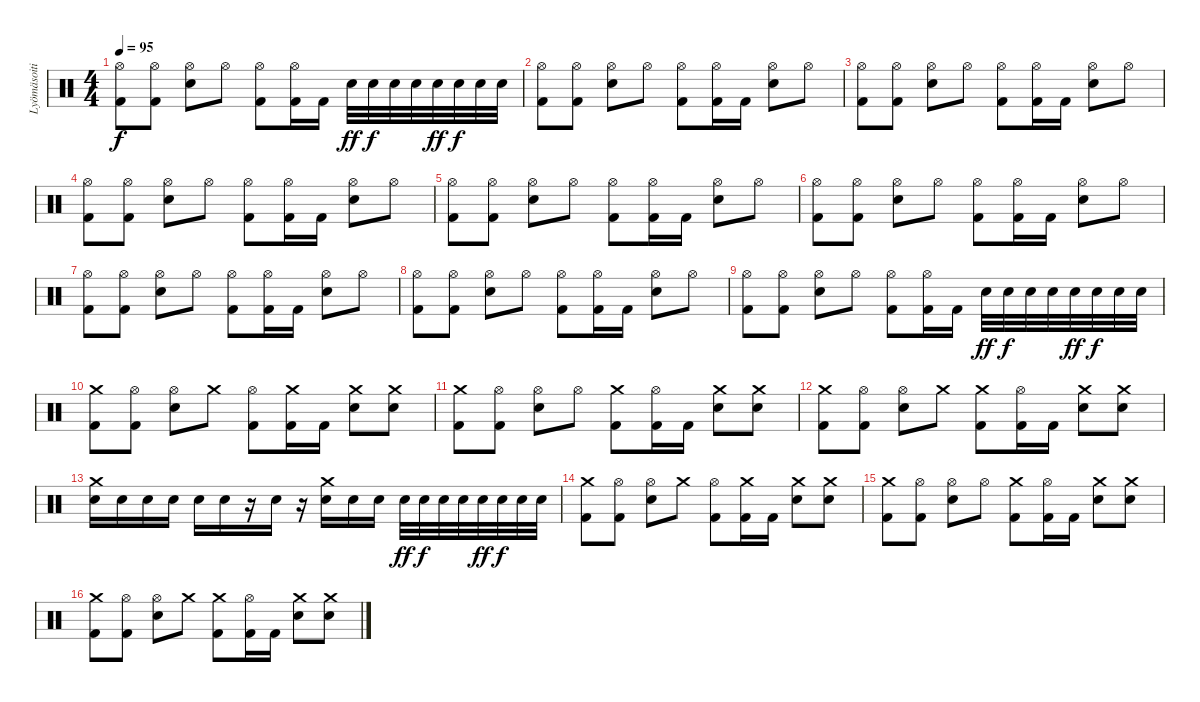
\track ("Lyömäsoitin" "Lyömäsoiti") {instrument percussion}
\staff {score}
\articulation defaults
\ts (4 4)
\tempo 95
\clef neutral
\ks c
("Hi-Hat (open)" "Kick (hit) 2").8{dy f} ("Hi-Hat (open)" "Kick (hit) 2").8 ("Hi-Hat (open)" "Electric Snare (hit)").8 "Hi-Hat (open)".8 ("Hi-Hat (open)" "Kick (hit) 2").8 ("Hi-Hat (open)" "Kick (hit) 2").16 "Kick (hit) 2".16 "Electric Snare (hit)".32{dy ff} "Electric Snare (hit)".32{dy f} "Electric Snare (hit)".32 "Electric Snare (hit)".32 "Electric Snare (hit)".32{dy ff} "Electric Snare (hit)".32{dy f} "Electric Snare (hit)".32 "Electric Snare (hit)".32 |
("Hi-Hat (open)" "Kick (hit) 2").8 ("Hi-Hat (open)" "Kick (hit) 2").8 ("Hi-Hat (open)" "Electric Snare (hit)").8 "Hi-Hat (open)".8 ("Hi-Hat (open)" "Kick (hit) 2").8 ("Hi-Hat (open)" "Kick (hit) 2").16 "Kick (hit) 2".16 ("Hi-Hat (open)" "Electric Snare (hit)").8 "Hi-Hat (open)".8 |
("Hi-Hat (open)" "Kick (hit) 2").8 ("Hi-Hat (open)" "Kick (hit) 2").8 ("Hi-Hat (open)" "Electric Snare (hit)").8 "Hi-Hat (open)".8 ("Hi-Hat (open)" "Kick (hit) 2").8 ("Hi-Hat (open)" "Kick (hit) 2").16 "Kick (hit) 2".16 ("Hi-Hat (open)" "Electric Snare (hit)").8 "Hi-Hat (open)".8 |
("Hi-Hat (open)" "Kick (hit) 2").8 ("Hi-Hat (open)" "Kick (hit) 2").8 ("Hi-Hat (open)" "Electric Snare (hit)").8 "Hi-Hat (open)".8 ("Hi-Hat (open)" "Kick (hit) 2").8 ("Hi-Hat (open)" "Kick (hit) 2").16 "Kick (hit) 2".16 ("Hi-Hat (open)" "Electric Snare (hit)").8 "Hi-Hat (open)".8 |
("Hi-Hat (open)" "Kick (hit) 2").8 ("Hi-Hat (open)" "Kick (hit) 2").8 ("Hi-Hat (open)" "Electric Snare (hit)").8 "Hi-Hat (open)".8 ("Hi-Hat (open)" "Kick (hit) 2").8 ("Hi-Hat (open)" "Kick (hit) 2").16 "Kick (hit) 2".16 ("Hi-Hat (open)" "Electric Snare (hit)").8 "Hi-Hat (open)".8 |
("Hi-Hat (open)" "Kick (hit) 2").8 ("Hi-Hat (open)" "Kick (hit) 2").8 ("Hi-Hat (open)" "Electric Snare (hit)").8 "Hi-Hat (open)".8 ("Hi-Hat (open)" "Kick (hit) 2").8 ("Hi-Hat (open)" "Kick (hit) 2").16 "Kick (hit) 2".16 ("Hi-Hat (open)" "Electric Snare (hit)").8 "Hi-Hat (open)".8 |
("Hi-Hat (open)" "Kick (hit) 2").8 ("Hi-Hat (open)" "Kick (hit) 2").8 ("Hi-Hat (open)" "Electric Snare (hit)").8 "Hi-Hat (open)".8 ("Hi-Hat (open)" "Kick (hit) 2").8 ("Hi-Hat (open)" "Kick (hit) 2").16 "Kick (hit) 2".16 ("Hi-Hat (open)" "Electric Snare (hit)").8 "Hi-Hat (open)".8 |
("Hi-Hat (open)" "Kick (hit) 2").8 ("Hi-Hat (open)" "Kick (hit) 2").8 ("Hi-Hat (open)" "Electric Snare (hit)").8 "Hi-Hat (open)".8 ("Hi-Hat (open)" "Kick (hit) 2").8 ("Hi-Hat (open)" "Kick (hit) 2").16 "Kick (hit) 2".16 ("Hi-Hat (open)" "Electric Snare (hit)").8 "Hi-Hat (open)".8 |
("Hi-Hat (open)" "Kick (hit) 2").8 ("Hi-Hat (open)" "Kick (hit) 2").8 ("Hi-Hat (open)" "Electric Snare (hit)").8 "Hi-Hat (open)".8 ("Hi-Hat (open)" "Kick (hit) 2").8 ("Hi-Hat (open)" "Kick (hit) 2").16 "Kick (hit) 2".16 "Electric Snare (hit)".32{dy ff} "Electric Snare (hit)".32{dy f} "Electric Snare (hit)".32 "Electric Snare (hit)".32 "Electric Snare (hit)".32{dy ff} "Electric Snare (hit)".32{dy f} "Electric Snare (hit)".32 "Electric Snare (hit)".32 |
("Crash medium (hit)" "Kick (hit) 2").8 ("Hi-Hat (open)" "Kick (hit) 2").8 ("Hi-Hat (open)" "Electric Snare (hit)").8 "Crash medium (hit)".8 ("Hi-Hat (open)" "Kick (hit) 2").8 ("Crash medium (hit)" "Kick (hit) 2").16 "Kick (hit) 2".16 ("Crash medium (hit)" "Electric Snare (hit)").8 ("Crash medium (hit)" "Electric Snare (hit)").8 |
("Crash medium (hit)" "Kick (hit) 2").8 ("Hi-Hat (open)" "Kick (hit) 2").8 ("Hi-Hat (open)" "Electric Snare (hit)").8 "Hi-Hat (open)".8 ("Crash medium (hit)" "Kick (hit) 2").8 ("Hi-Hat (open)" "Kick (hit) 2").16 "Kick (hit) 2".16 ("Crash medium (hit)" "Electric Snare (hit)").8 ("Crash medium (hit)" "Electric Snare (hit)").8 |
("Crash medium (hit)" "Kick (hit) 2").8 ("Hi-Hat (open)" "Kick (hit) 2").8 ("Hi-Hat (open)" "Electric Snare (hit)").8 "Crash medium (hit)".8 ("Crash medium (hit)" "Kick (hit) 2").8 ("Hi-Hat (open)" "Kick (hit) 2").16 "Kick (hit) 2".16 ("Crash medium (hit)" "Electric Snare (hit)").8 ("Crash medium (hit)" "Electric Snare (hit)").8 |
("Crash medium (hit)" "Electric Snare (hit)").16 "Electric Snare (hit)".16 "Electric Snare (hit)".16 "Electric Snare (hit)".16 "Electric Snare (hit)".16 "Electric Snare (hit)".16 r.16 "Electric Snare (hit)".16 r.16 ("Crash medium (hit)" "Electric Snare (hit)").16 "Electric Snare (hit)".16 "Electric Snare (hit)".16 "Electric Snare (hit)".32{dy ff} "Electric Snare (hit)".32{dy f} "Electric Snare (hit)".32 "Electric Snare (hit)".32 "Electric Snare (hit)".32{dy ff} "Electric Snare (hit)".32{dy f} "Electric Snare (hit)".32 "Electric Snare (hit)".32 |
("Crash medium (hit)" "Kick (hit) 2").8 ("Hi-Hat (open)" "Kick (hit) 2").8 ("Hi-Hat (open)" "Electric Snare (hit)").8 "Crash medium (hit)".8 ("Hi-Hat (open)" "Kick (hit) 2").8 ("Crash medium (hit)" "Kick (hit) 2").16 "Kick (hit) 2".16 ("Crash medium (hit)" "Electric Snare (hit)").8 ("Crash medium (hit)" "Electric Snare (hit)").8 |
("Crash medium (hit)" "Kick (hit) 2").8 ("Hi-Hat (open)" "Kick (hit) 2").8 ("Hi-Hat (open)" "Electric Snare (hit)").8 "Hi-Hat (open)".8 ("Crash medium (hit)" "Kick (hit) 2").8 ("Hi-Hat (open)" "Kick (hit) 2").16 "Kick (hit) 2".16 ("Crash medium (hit)" "Electric Snare (hit)").8 ("Crash medium (hit)" "Electric Snare (hit)").8 |
("Crash medium (hit)" "Kick (hit) 2").8 ("Hi-Hat (open)" "Kick (hit) 2").8 ("Hi-Hat (open)" "Electric Snare (hit)").8 "Crash medium (hit)".8 ("Crash medium (hit)" "Kick (hit) 2").8 ("Hi-Hat (open)" "Kick (hit) 2").16 "Kick (hit) 2".16 ("Crash medium (hit)" "Electric Snare (hit)").8 ("Crash medium (hit)" "Electric Snare (hit)").8
